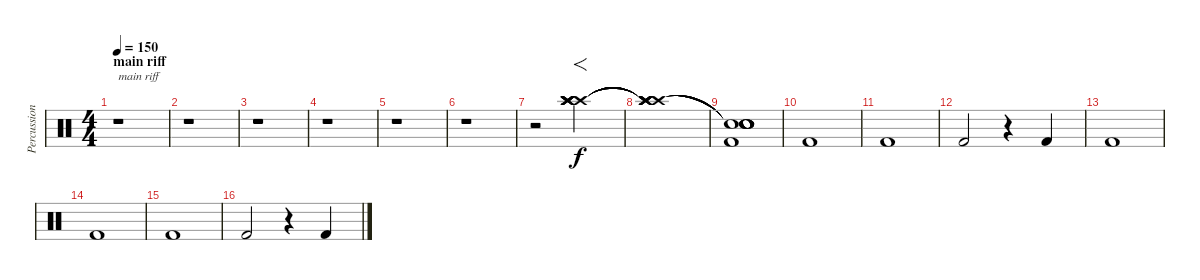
\track ("Percussion" "Percussion") {instrument percussion}
\staff {score}
\articulation defaults
\ts (4 4)
\section ("" "main riff")
\tempo 150
\clef neutral
\ks c
r.1{txt "main riff" dy f} |
r.1 |
r.1 |
r.1 |
r.1 |
r.1 |
r.2 ("Crash high (hit)" "Crash high (hit)" "Crash high (hit)" "Crash high (hit)" "Crash high (hit)" "Crash high (hit)").2{f} |
("Crash high (hit)"{t} "Crash high (hit)"{t} "Crash high (hit)"{t} "Crash high (hit)"{t} "Crash high (hit)"{t} "Crash high (hit)"{t}).1 |
("Snare (hit)"{t} "Snare (hit)"{t} "Snare (hit)"{t} "Snare (hit)"{t} "Snare (hit)"{t} "Kick (hit) 2").1 |
"Kick (hit) 2".1 |
"Kick (hit) 2".1 |
"Kick (hit) 2".2 r.4 "Kick (hit) 2".4 |
"Kick (hit) 2".1 |
"Kick (hit) 2".1 |
"Kick (hit) 2".1 |
"Kick (hit) 2".2 r.4 "Kick (hit) 2".4
